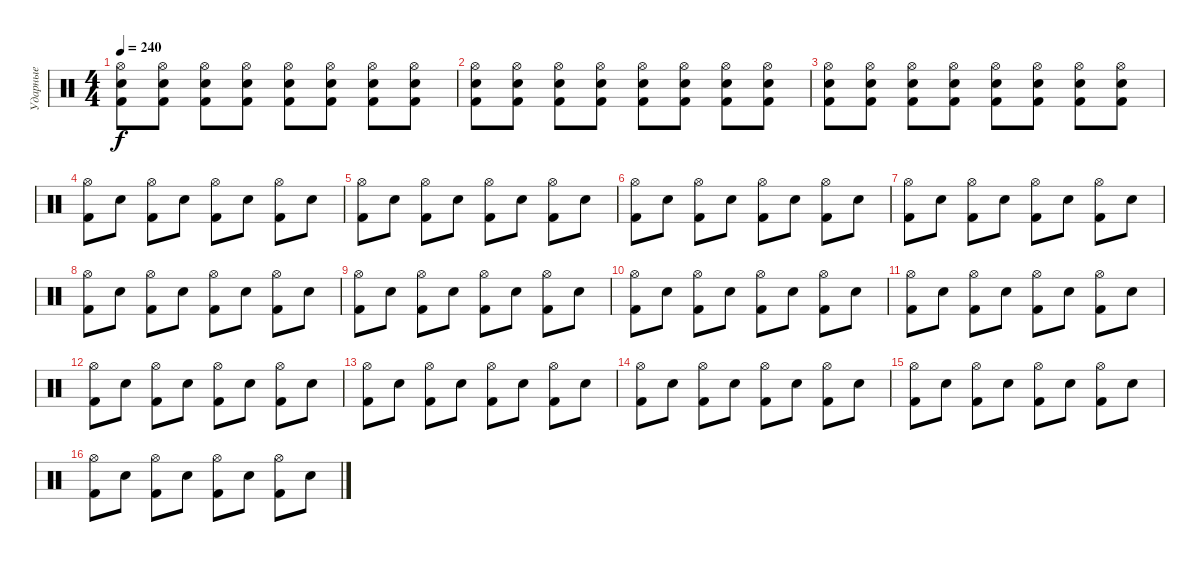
\track ("Ударные" "Ударные") {instrument percussion}
\staff {score}
\articulation defaults
\ts (4 4)
\tempo 240
\clef neutral
\ks c
("Electric Snare (hit)" "Kick (hit) 2" "Hi-Hat (open)").8{dy f} ("Hi-Hat (open)" "Kick (hit) 2" "Electric Snare (hit)").8 ("Electric Snare (hit)" "Kick (hit) 2" "Hi-Hat (open)").8 ("Hi-Hat (open)" "Kick (hit) 2" "Electric Snare (hit)").8 ("Electric Snare (hit)" "Kick (hit) 2" "Hi-Hat (open)").8 ("Hi-Hat (open)" "Kick (hit) 2" "Electric Snare (hit)").8 ("Electric Snare (hit)" "Kick (hit) 2" "Hi-Hat (open)").8 ("Hi-Hat (open)" "Kick (hit) 2" "Electric Snare (hit)").8 |
("Electric Snare (hit)" "Kick (hit) 2" "Hi-Hat (open)").8 ("Hi-Hat (open)" "Kick (hit) 2" "Electric Snare (hit)").8 ("Electric Snare (hit)" "Kick (hit) 2" "Hi-Hat (open)").8 ("Hi-Hat (open)" "Kick (hit) 2" "Electric Snare (hit)").8 ("Electric Snare (hit)" "Kick (hit) 2" "Hi-Hat (open)").8 ("Hi-Hat (open)" "Kick (hit) 2" "Electric Snare (hit)").8 ("Electric Snare (hit)" "Kick (hit) 2" "Hi-Hat (open)").8 ("Hi-Hat (open)" "Kick (hit) 2" "Electric Snare (hit)").8 |
("Electric Snare (hit)" "Kick (hit) 2" "Hi-Hat (open)").8 ("Hi-Hat (open)" "Kick (hit) 2" "Electric Snare (hit)").8 ("Electric Snare (hit)" "Kick (hit) 2" "Hi-Hat (open)").8 ("Hi-Hat (open)" "Kick (hit) 2" "Electric Snare (hit)").8 ("Electric Snare (hit)" "Kick (hit) 2" "Hi-Hat (open)").8 ("Hi-Hat (open)" "Kick (hit) 2" "Electric Snare (hit)").8 ("Electric Snare (hit)" "Kick (hit) 2" "Hi-Hat (open)").8 ("Hi-Hat (open)" "Kick (hit) 2" "Electric Snare (hit)").8 |
("Kick (hit) 2" "Hi-Hat (open)").8 "Electric Snare (hit)".8 ("Kick (hit) 2" "Hi-Hat (open)").8 "Electric Snare (hit)".8 ("Kick (hit) 2" "Hi-Hat (open)").8 "Electric Snare (hit)".8 ("Kick (hit) 2" "Hi-Hat (open)").8 "Electric Snare (hit)".8 |
("Kick (hit) 2" "Hi-Hat (open)").8 "Electric Snare (hit)".8 ("Kick (hit) 2" "Hi-Hat (open)").8 "Electric Snare (hit)".8 ("Kick (hit) 2" "Hi-Hat (open)").8 "Electric Snare (hit)".8 ("Kick (hit) 2" "Hi-Hat (open)").8 "Electric Snare (hit)".8 |
("Kick (hit) 2" "Hi-Hat (open)").8 "Electric Snare (hit)".8 ("Kick (hit) 2" "Hi-Hat (open)").8 "Electric Snare (hit)".8 ("Kick (hit) 2" "Hi-Hat (open)").8 "Electric Snare (hit)".8 ("Kick (hit) 2" "Hi-Hat (open)").8 "Electric Snare (hit)".8 |
("Kick (hit) 2" "Hi-Hat (open)").8 "Electric Snare (hit)".8 ("Kick (hit) 2" "Hi-Hat (open)").8 "Electric Snare (hit)".8 ("Kick (hit) 2" "Hi-Hat (open)").8 "Electric Snare (hit)".8 ("Kick (hit) 2" "Hi-Hat (open)").8 "Electric Snare (hit)".8 |
("Kick (hit) 2" "Hi-Hat (open)").8 "Electric Snare (hit)".8 ("Kick (hit) 2" "Hi-Hat (open)").8 "Electric Snare (hit)".8 ("Kick (hit) 2" "Hi-Hat (open)").8 "Electric Snare (hit)".8 ("Kick (hit) 2" "Hi-Hat (open)").8 "Electric Snare (hit)".8 |
("Kick (hit) 2" "Hi-Hat (open)").8 "Electric Snare (hit)".8 ("Kick (hit) 2" "Hi-Hat (open)").8 "Electric Snare (hit)".8 ("Kick (hit) 2" "Hi-Hat (open)").8 "Electric Snare (hit)".8 ("Kick (hit) 2" "Hi-Hat (open)").8 "Electric Snare (hit)".8 |
("Kick (hit) 2" "Hi-Hat (open)").8 "Electric Snare (hit)".8 ("Kick (hit) 2" "Hi-Hat (open)").8 "Electric Snare (hit)".8 ("Kick (hit) 2" "Hi-Hat (open)").8 "Electric Snare (hit)".8 ("Kick (hit) 2" "Hi-Hat (open)").8 "Electric Snare (hit)".8 |
("Kick (hit) 2" "Hi-Hat (open)").8 "Electric Snare (hit)".8 ("Kick (hit) 2" "Hi-Hat (open)").8 "Electric Snare (hit)".8 ("Kick (hit) 2" "Hi-Hat (open)").8 "Electric Snare (hit)".8 ("Kick (hit) 2" "Hi-Hat (open)").8 "Electric Snare (hit)".8 |
("Kick (hit) 2" "Hi-Hat (open)").8 "Electric Snare (hit)".8 ("Kick (hit) 2" "Hi-Hat (open)").8 "Electric Snare (hit)".8 ("Kick (hit) 2" "Hi-Hat (open)").8 "Electric Snare (hit)".8 ("Kick (hit) 2" "Hi-Hat (open)").8 "Electric Snare (hit)".8 |
("Kick (hit) 2" "Hi-Hat (open)").8 "Electric Snare (hit)".8 ("Kick (hit) 2" "Hi-Hat (open)").8 "Electric Snare (hit)".8 ("Kick (hit) 2" "Hi-Hat (open)").8 "Electric Snare (hit)".8 ("Kick (hit) 2" "Hi-Hat (open)").8 "Electric Snare (hit)".8 |
("Kick (hit) 2" "Hi-Hat (open)").8 "Electric Snare (hit)".8 ("Kick (hit) 2" "Hi-Hat (open)").8 "Electric Snare (hit)".8 ("Kick (hit) 2" "Hi-Hat (open)").8 "Electric Snare (hit)".8 ("Kick (hit) 2" "Hi-Hat (open)").8 "Electric Snare (hit)".8 |
("Kick (hit) 2" "Hi-Hat (open)").8 "Electric Snare (hit)".8 ("Kick (hit) 2" "Hi-Hat (open)").8 "Electric Snare (hit)".8 ("Kick (hit) 2" "Hi-Hat (open)").8 "Electric Snare (hit)".8 ("Kick (hit) 2" "Hi-Hat (open)").8 "Electric Snare (hit)".8 |
("Kick (hit) 2" "Hi-Hat (open)").8 "Electric Snare (hit)".8 ("Kick (hit) 2" "Hi-Hat (open)").8 "Electric Snare (hit)".8 ("Kick (hit) 2" "Hi-Hat (open)").8 "Electric Snare (hit)".8 ("Kick (hit) 2" "Hi-Hat (open)").8 "Electric Snare (hit)".8
